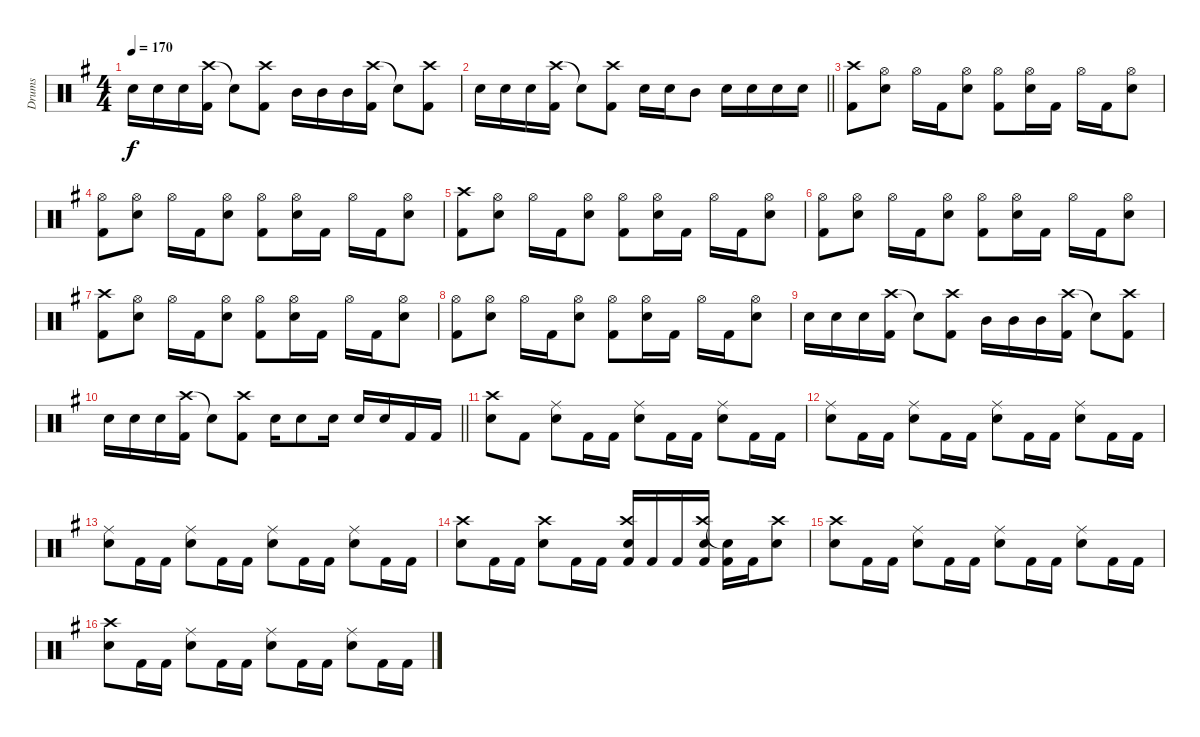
\track ("Drums" "Drums") {instrument percussion}
\staff {score}
\articulation defaults
\ts (4 4)
\tempo 170
\clef neutral
\ks g "Snare (hit) 2".16{dy f} "Snare (hit) 2".16 "Snare (hit) 2".16
("Crash high (hit)" "Kick (hit) 2").16 "Snare (hit)"{t}.8 ("Crash high (hit)" "Kick (hit) 2").8 "Mid Tom (hit)".16 "Mid Tom (hit)".16 "Mid Tom (hit)".16 ("Crash high (hit)" "Kick (hit) 2").16 "Snare (hit)"{t}.8 ("Crash high (hit)" "Kick (hit) 2").8 |
\barLineRight lightlight "Snare (hit) 2".16 "Snare (hit) 2".16 "Snare (hit) 2".16
("Crash high (hit)" "Kick (hit) 2").16 "Snare (hit)"{t}.8 ("Crash high (hit)" "Kick (hit) 2").8 "Snare (hit) 2".16 "Snare (hit) 2".16 "Mid Tom (hit)".8 "Snare (hit) 2".16 "Snare (hit) 2".16 "Snare (hit) 2".16 "Snare (hit) 2".16 |
("Crash high (hit)" "Kick (hit) 2").8 ("Hi-Hat (open)" "Snare (hit) 2").8 "Hi-Hat (open)".16 "Kick (hit) 2".16 ("Hi-Hat (open)" "Snare (hit) 2").8 ("Hi-Hat (open)" "Kick (hit) 2").8 ("Hi-Hat (open)" "Snare (hit) 2").16 "Kick (hit) 2".16 "Hi-Hat (open)".16 "Kick (hit) 2".16 ("Hi-Hat (open)" "Snare (hit) 2").8 |
("Hi-Hat (open)" "Kick (hit) 2").8 ("Hi-Hat (open)" "Snare (hit) 2").8 "Hi-Hat (open)".16 "Kick (hit) 2".16 ("Hi-Hat (open)" "Snare (hit) 2").8 ("Hi-Hat (open)" "Kick (hit) 2").8 ("Hi-Hat (open)" "Snare (hit) 2").16 "Kick (hit) 2".16 "Hi-Hat (open)".16 "Kick (hit) 2".16 ("Hi-Hat (open)" "Snare (hit) 2").8 |
("Crash high (hit)" "Kick (hit) 2").8 ("Hi-Hat (open)" "Snare (hit) 2").8 "Hi-Hat (open)".16 "Kick (hit) 2".16 ("Hi-Hat (open)" "Snare (hit) 2").8 ("Hi-Hat (open)" "Kick (hit) 2").8 ("Hi-Hat (open)" "Snare (hit) 2").16 "Kick (hit) 2".16 "Hi-Hat (open)".16 "Kick (hit) 2".16 ("Hi-Hat (open)" "Snare (hit) 2").8 |
("Hi-Hat (open)" "Kick (hit) 2").8 ("Hi-Hat (open)" "Snare (hit) 2").8 "Hi-Hat (open)".16 "Kick (hit) 2".16 ("Hi-Hat (open)" "Snare (hit) 2").8 ("Hi-Hat (open)" "Kick (hit) 2").8 ("Hi-Hat (open)" "Snare (hit) 2").16 "Kick (hit) 2".16 "Hi-Hat (open)".16 "Kick (hit) 2".16 ("Hi-Hat (open)" "Snare (hit) 2").8 |
("Crash high (hit)" "Kick (hit) 2").8 ("Hi-Hat (open)" "Snare (hit) 2").8 "Hi-Hat (open)".16 "Kick (hit) 2".16 ("Hi-Hat (open)" "Snare (hit) 2").8 ("Hi-Hat (open)" "Kick (hit) 2").8 ("Hi-Hat (open)" "Snare (hit) 2").16 "Kick (hit) 2".16 "Hi-Hat (open)".16 "Kick (hit) 2".16 ("Hi-Hat (open)" "Snare (hit) 2").8 |
("Hi-Hat (open)" "Kick (hit) 2").8 ("Hi-Hat (open)" "Snare (hit) 2").8 "Hi-Hat (open)".16 "Kick (hit) 2".16 ("Hi-Hat (open)" "Snare (hit) 2").8 ("Hi-Hat (open)" "Kick (hit) 2").8 ("Hi-Hat (open)" "Snare (hit) 2").16 "Kick (hit) 2".16 "Hi-Hat (open)".16 "Kick (hit) 2".16 ("Hi-Hat (open)" "Snare (hit) 2").8 |
"Snare (hit) 2".16 "Snare (hit) 2".16 "Snare (hit) 2".16 ("Crash high (hit)" "Kick (hit) 2").16 "Snare (hit)"{t}.8 ("Crash high (hit)" "Kick (hit) 2").8 "Mid Tom (hit)".16 "Mid Tom (hit)".16 "Mid Tom (hit)".16 ("Crash high (hit)" "Kick (hit) 2").16 "Snare (hit)"{t}.8 ("Crash high (hit)" "Kick (hit) 2").8 |
\barLineRight lightlight "Snare (hit) 2".16 "Snare (hit) 2".16 "Snare (hit) 2".16
("Crash high (hit)" "Kick (hit) 2").16 "Snare (hit)"{t}.8 ("Crash high (hit)" "Kick (hit) 2").8 "Snare (hit) 2".16 "Snare (hit) 2".8 "Snare (hit) 2".16 "Snare (hit) 2".16 "Snare (hit) 2".16 "Kick (hit) 2".16 "Kick (hit) 2".16 |
("Crash high (hit)" "Snare (hit) 2").8 "Kick (hit) 2".8 ("Ride (middle)" "Snare (hit) 2").8 "Kick (hit) 2".16 "Kick (hit) 2".16 ("Ride (middle)" "Snare (hit) 2").8 "Kick (hit) 2".16 "Kick (hit) 2".16 ("Ride (middle)" "Snare (hit) 2").8 "Kick (hit) 2".16 "Kick (hit) 2".16 |
("Ride (middle)" "Snare (hit) 2").8 "Kick (hit) 2".16 "Kick (hit) 2".16 ("Ride (middle)" "Snare (hit) 2").8 "Kick (hit) 2".16 "Kick (hit) 2".16 ("Ride (middle)" "Snare (hit) 2").8 "Kick (hit) 2".16 "Kick (hit) 2".16 ("Ride (middle)" "Snare (hit) 2").8 "Kick (hit) 2".16 "Kick (hit) 2".16 |
("Ride (middle)" "Snare (hit) 2").8 "Kick (hit) 2".16 "Kick (hit) 2".16 ("Ride (middle)" "Snare (hit) 2").8 "Kick (hit) 2".16 "Kick (hit) 2".16 ("Ride (middle)" "Snare (hit) 2").8 "Kick (hit) 2".16 "Kick (hit) 2".16 ("Ride (middle)" "Snare (hit) 2").8 "Kick (hit) 2".16 "Kick (hit) 2".16 |
("Crash high (hit)" "Snare (hit) 2").8 "Kick (hit) 2".16 "Kick (hit) 2".16 ("Crash high (hit)" "Snare (hit) 2").8 "Kick (hit) 2".16 "Kick (hit) 2".16 ("Crash high (hit)" "Snare (hit) 2" "Kick (hit) 2").16 "Kick (hit) 2".16 "Kick (hit) 2".16 ("Crash high (hit)" "Snare (hit) 2" "Kick (hit) 2").16 ("Snare (hit)"{t} "Kick (hit) 2").16 "Kick (hit) 2".16 ("Crash high (hit)" "Snare (hit) 2").8 |
("Crash high (hit)" "Snare (hit) 2").8 "Kick (hit) 2".16 "Kick (hit) 2".16 ("Ride (middle)" "Snare (hit) 2").8 "Kick (hit) 2".16 "Kick (hit) 2".16 ("Ride (middle)" "Snare (hit) 2").8 "Kick (hit) 2".16 "Kick (hit) 2".16 ("Ride (middle)" "Snare (hit) 2").8 "Kick (hit) 2".16 "Kick (hit) 2".16 |
("Crash high (hit)" "Snare (hit) 2").8 "Kick (hit) 2".16 "Kick (hit) 2".16 ("Ride (middle)" "Snare (hit) 2").8 "Kick (hit) 2".16 "Kick (hit) 2".16 ("Ride (middle)" "Snare (hit) 2").8 "Kick (hit) 2".16 "Kick (hit) 2".16 ("Ride (middle)" "Snare (hit) 2").8 "Kick (hit) 2".16 "Kick (hit) 2".16
